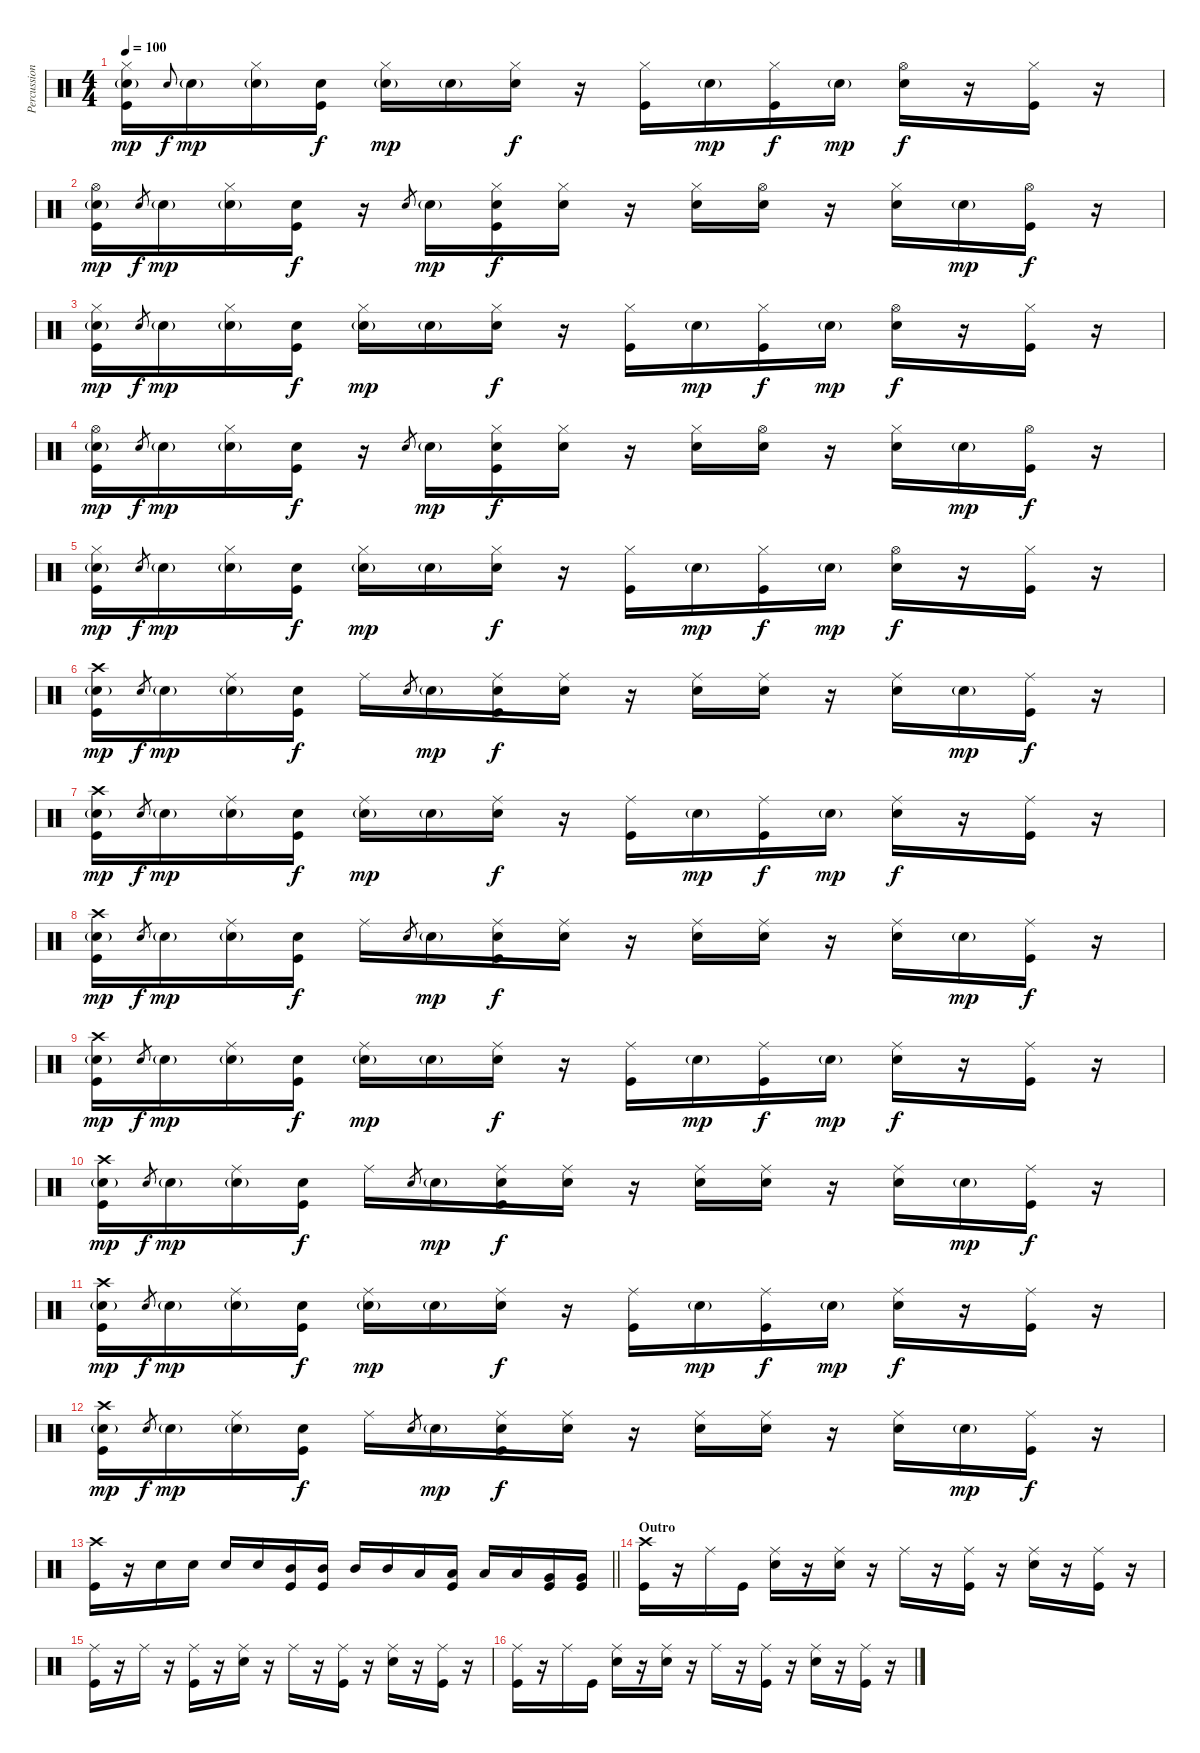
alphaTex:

\track ("Percussion" "Percussion") {instrument percussion}
\staff {score}
\articulation defaults
\ts (4 4)
\tempo 100
\clef neutral
\ks c
("Hi-Hat (closed)" "Snare (hit) 2"{g} "Kick (hit)").16{dy mp} "Snare (hit) 2".8{gr onbeat dy f} "Snare (hit) 2"{g}.16{dy mp} ("Hi-Hat (closed)" "Snare (hit) 2"{g}).16 ("Snare (hit) 2" "Kick (hit)").16{dy f} ("Hi-Hat (closed)" "Snare (hit) 2"{g}).16{dy mp} "Snare (hit) 2"{g}.16 ("Hi-Hat (closed)" "Snare (hit) 2").16{dy f} r.16 ("Hi-Hat (closed)" "Kick (hit)").16 "Snare (hit) 2"{g}.16{dy mp} ("Hi-Hat (closed)" "Kick (hit)").16{dy f} "Snare (hit) 2"{g}.16{dy mp} ("Hi-Hat (open)" "Snare (hit) 2").16{dy f} r.16 ("Hi-Hat (closed)" "Kick (hit)").16 r.16 |
("Hi-Hat (open)" "Snare (hit) 2"{g} "Kick (hit)").16{dy mp} "Snare (hit) 2".8{gr dy f} "Snare (hit) 2"{g}.16{dy mp} ("Hi-Hat (closed)" "Snare (hit) 2"{g}).16 ("Snare (hit) 2" "Kick (hit)").16{dy f} r.16 "Snare (hit) 2".8{gr} "Snare (hit) 2"{g}.16{dy mp} ("Hi-Hat (closed)" "Snare (hit) 2" "Kick (hit)").16{dy f} ("Hi-Hat (closed)" "Snare (hit) 2").16 r.16 ("Hi-Hat (closed)" "Snare (hit) 2").16 ("Hi-Hat (open)" "Snare (hit) 2").16 r.16 ("Hi-Hat (closed)" "Snare (hit) 2").16 "Snare (hit) 2"{g}.16{dy mp} ("Hi-Hat (open)" "Kick (hit)").16{dy f} r.16 |
("Hi-Hat (closed)" "Snare (hit) 2"{g} "Kick (hit)").16{dy mp} "Snare (hit) 2".8{gr dy f} "Snare (hit) 2"{g}.16{dy mp} ("Hi-Hat (closed)" "Snare (hit) 2"{g}).16 ("Snare (hit) 2" "Kick (hit)").16{dy f} ("Hi-Hat (closed)" "Snare (hit) 2"{g}).16{dy mp} "Snare (hit) 2"{g}.16 ("Hi-Hat (closed)" "Snare (hit) 2").16{dy f} r.16 ("Hi-Hat (closed)" "Kick (hit)").16 "Snare (hit) 2"{g}.16{dy mp} ("Hi-Hat (closed)" "Kick (hit)").16{dy f} "Snare (hit) 2"{g}.16{dy mp} ("Hi-Hat (open)" "Snare (hit) 2").16{dy f} r.16 ("Hi-Hat (closed)" "Kick (hit)").16 r.16 |
("Hi-Hat (open)" "Snare (hit) 2"{g} "Kick (hit)").16{dy mp} "Snare (hit) 2".8{gr dy f} "Snare (hit) 2"{g}.16{dy mp} ("Hi-Hat (closed)" "Snare (hit) 2"{g}).16 ("Snare (hit) 2" "Kick (hit)").16{dy f} r.16 "Snare (hit) 2".8{gr} "Snare (hit) 2"{g}.16{dy mp} ("Hi-Hat (closed)" "Snare (hit) 2" "Kick (hit)").16{dy f} ("Hi-Hat (closed)" "Snare (hit) 2").16 r.16 ("Hi-Hat (closed)" "Snare (hit) 2").16 ("Hi-Hat (open)" "Snare (hit) 2").16 r.16 ("Hi-Hat (closed)" "Snare (hit) 2").16 "Snare (hit) 2"{g}.16{dy mp} ("Hi-Hat (open)" "Kick (hit)").16{dy f} r.16 |
("Hi-Hat (closed)" "Snare (hit) 2"{g} "Kick (hit)").16{dy mp} "Snare (hit) 2".8{gr dy f} "Snare (hit) 2"{g}.16{dy mp} ("Hi-Hat (closed)" "Snare (hit) 2"{g}).16 ("Snare (hit) 2" "Kick (hit)").16{dy f} ("Hi-Hat (closed)" "Snare (hit) 2"{g}).16{dy mp} "Snare (hit) 2"{g}.16 ("Hi-Hat (closed)" "Snare (hit) 2").16{dy f} r.16 ("Hi-Hat (closed)" "Kick (hit)").16 "Snare (hit) 2"{g}.16{dy mp} ("Hi-Hat (closed)" "Kick (hit)").16{dy f} "Snare (hit) 2"{g}.16{dy mp} ("Hi-Hat (open)" "Snare (hit) 2").16{dy f} r.16 ("Hi-Hat (closed)" "Kick (hit)").16 r.16 |
("Crash high (hit)" "Snare (hit) 2"{g} "Kick (hit)").16{dy mp} "Snare (hit) 2".8{gr dy f} "Snare (hit) 2"{g}.16{dy mp} ("Ride (middle)" "Snare (hit) 2"{g}).16 ("Snare (hit) 2" "Kick (hit)").16{dy f} "Ride (middle)".16 "Snare (hit) 2".8{gr} "Snare (hit) 2"{g}.16{dy mp} ("Ride (middle)" "Snare (hit) 2" "Kick (hit)").16{dy f} ("Ride (middle)" "Snare (hit) 2").16 r.16 ("Ride (middle)" "Snare (hit) 2").16 ("Ride (middle)" "Snare (hit) 2").16 r.16 ("Ride (middle)" "Snare (hit) 2").16 "Snare (hit) 2"{g}.16{dy mp} ("Ride (middle)" "Kick (hit)").16{dy f} r.16 |
("Crash high (hit)" "Snare (hit) 2"{g} "Kick (hit)").16{dy mp} "Snare (hit) 2".8{gr dy f} "Snare (hit) 2"{g}.16{dy mp} ("Ride (middle)" "Snare (hit) 2"{g}).16 ("Snare (hit) 2" "Kick (hit)").16{dy f} ("Ride (middle)" "Snare (hit) 2"{g}).16{dy mp} "Snare (hit) 2"{g}.16 ("Ride (middle)" "Snare (hit) 2").16{dy f} r.16 ("Ride (middle)" "Kick (hit)").16 "Snare (hit) 2"{g}.16{dy mp} ("Ride (middle)" "Kick (hit)").16{dy f} "Snare (hit) 2"{g}.16{dy mp} ("Ride (middle)" "Snare (hit) 2").16{dy f} r.16 ("Ride (middle)" "Kick (hit)").16 r.16 |
("Crash high (hit)" "Snare (hit) 2"{g} "Kick (hit)").16{dy mp} "Snare (hit) 2".8{gr dy f} "Snare (hit) 2"{g}.16{dy mp} ("Ride (middle)" "Snare (hit) 2"{g}).16 ("Snare (hit) 2" "Kick (hit)").16{dy f} "Ride (middle)".16 "Snare (hit) 2".8{gr} "Snare (hit) 2"{g}.16{dy mp} ("Ride (middle)" "Snare (hit) 2" "Kick (hit)").16{dy f} ("Ride (middle)" "Snare (hit) 2").16 r.16 ("Ride (middle)" "Snare (hit) 2").16 ("Ride (middle)" "Snare (hit) 2").16 r.16 ("Ride (middle)" "Snare (hit) 2").16 "Snare (hit) 2"{g}.16{dy mp} ("Ride (middle)" "Kick (hit)").16{dy f} r.16 |
("Crash high (hit)" "Snare (hit) 2"{g} "Kick (hit)").16{dy mp} "Snare (hit) 2".8{gr dy f} "Snare (hit) 2"{g}.16{dy mp} ("Ride (middle)" "Snare (hit) 2"{g}).16 ("Snare (hit) 2" "Kick (hit)").16{dy f} ("Ride (middle)" "Snare (hit) 2"{g}).16{dy mp} "Snare (hit) 2"{g}.16 ("Ride (middle)" "Snare (hit) 2").16{dy f} r.16 ("Ride (middle)" "Kick (hit)").16 "Snare (hit) 2"{g}.16{dy mp} ("Ride (middle)" "Kick (hit)").16{dy f} "Snare (hit) 2"{g}.16{dy mp} ("Ride (middle)" "Snare (hit) 2").16{dy f} r.16 ("Ride (middle)" "Kick (hit)").16 r.16 |
("Crash high (hit)" "Snare (hit) 2"{g} "Kick (hit)").16{dy mp} "Snare (hit) 2".8{gr dy f} "Snare (hit) 2"{g}.16{dy mp} ("Ride (middle)" "Snare (hit) 2"{g}).16 ("Snare (hit) 2" "Kick (hit)").16{dy f} "Ride (middle)".16 "Snare (hit) 2".8{gr} "Snare (hit) 2"{g}.16{dy mp} ("Ride (middle)" "Snare (hit) 2" "Kick (hit)").16{dy f} ("Ride (middle)" "Snare (hit) 2").16 r.16 ("Ride (middle)" "Snare (hit) 2").16 ("Ride (middle)" "Snare (hit) 2").16 r.16 ("Ride (middle)" "Snare (hit) 2").16 "Snare (hit) 2"{g}.16{dy mp} ("Ride (middle)" "Kick (hit)").16{dy f} r.16 |
("Crash high (hit)" "Snare (hit) 2"{g} "Kick (hit)").16{dy mp} "Snare (hit) 2".8{gr dy f} "Snare (hit) 2"{g}.16{dy mp} ("Ride (middle)" "Snare (hit) 2"{g}).16 ("Snare (hit) 2" "Kick (hit)").16{dy f} ("Ride (middle)" "Snare (hit) 2"{g}).16{dy mp} "Snare (hit) 2"{g}.16 ("Ride (middle)" "Snare (hit) 2").16{dy f} r.16 ("Ride (middle)" "Kick (hit)").16 "Snare (hit) 2"{g}.16{dy mp} ("Ride (middle)" "Kick (hit)").16{dy f} "Snare (hit) 2"{g}.16{dy mp} ("Ride (middle)" "Snare (hit) 2").16{dy f} r.16 ("Ride (middle)" "Kick (hit)").16 r.16 |
("Crash high (hit)" "Snare (hit) 2"{g} "Kick (hit)").16{dy mp} "Snare (hit) 2".8{gr dy f} "Snare (hit) 2"{g}.16{dy mp} ("Ride (middle)" "Snare (hit) 2"{g}).16 ("Snare (hit) 2" "Kick (hit)").16{dy f} "Ride (middle)".16 "Snare (hit) 2".8{gr} "Snare (hit) 2"{g}.16{dy mp} ("Ride (middle)" "Snare (hit) 2" "Kick (hit)").16{dy f} ("Ride (middle)" "Snare (hit) 2").16 r.16 ("Ride (middle)" "Snare (hit) 2").16 ("Ride (middle)" "Snare (hit) 2").16 r.16 ("Ride (middle)" "Snare (hit) 2").16 "Snare (hit) 2"{g}.16{dy mp} ("Ride (middle)" "Kick (hit)").16{dy f} r.16 |
\barLineRight lightlight
("Crash high (hit)" "Kick (hit)").16 r.16 "Snare (hit) 2".16 "Snare (hit) 2".16 "Snare (hit) 2".16 "Snare (hit) 2".16 ("Mid Tom (hit)" "Kick (hit)").16 ("Mid Tom (hit)" "Kick (hit)").16 "Mid Tom (hit)".16 "Mid Tom (hit)".16 "Low Tom (hit)".16 ("Low Tom (hit)" "Kick (hit)").16 "Low Tom (hit)".16 "Low Tom (hit)".16 ("Very Low Tom (hit)" "Kick (hit)").16 ("Very Low Tom (hit)" "Kick (hit)").16 |
\section ("" "Outro")
("Crash high (hit)" "Kick (hit)").16 r.16 "Ride (middle)".16 "Kick (hit)".16 ("Ride (middle)" "Snare (hit) 2").16 r.16 ("Ride (middle)" "Snare (hit) 2").16 r.16 "Ride (middle)".16 r.16 ("Ride (middle)" "Kick (hit)").16 r.16 ("Ride (middle)" "Snare (hit) 2").16 r.16 ("Ride (middle)" "Kick (hit)").16 r.16 |
("Ride (middle)" "Kick (hit)").16 r.16 "Ride (middle)".16 r.16 ("Ride (middle)" "Kick (hit)").16 r.16 ("Ride (middle)" "Snare (hit) 2").16 r.16 "Ride (middle)".16 r.16 ("Ride (middle)" "Kick (hit)").16 r.16 ("Ride (middle)" "Snare (hit) 2").16 r.16 ("Ride (middle)" "Kick (hit)").16 r.16 |
("Ride (middle)" "Kick (hit)").16 r.16 "Ride (middle)".16 "Kick (hit)".16 ("Ride (middle)" "Snare (hit) 2").16 r.16 ("Ride (middle)" "Snare (hit) 2").16 r.16 "Ride (middle)".16 r.16 ("Ride (middle)" "Kick (hit)").16 r.16 ("Ride (middle)" "Snare (hit) 2").16 r.16 ("Ride (middle)" "Kick (hit)").16 r.16
